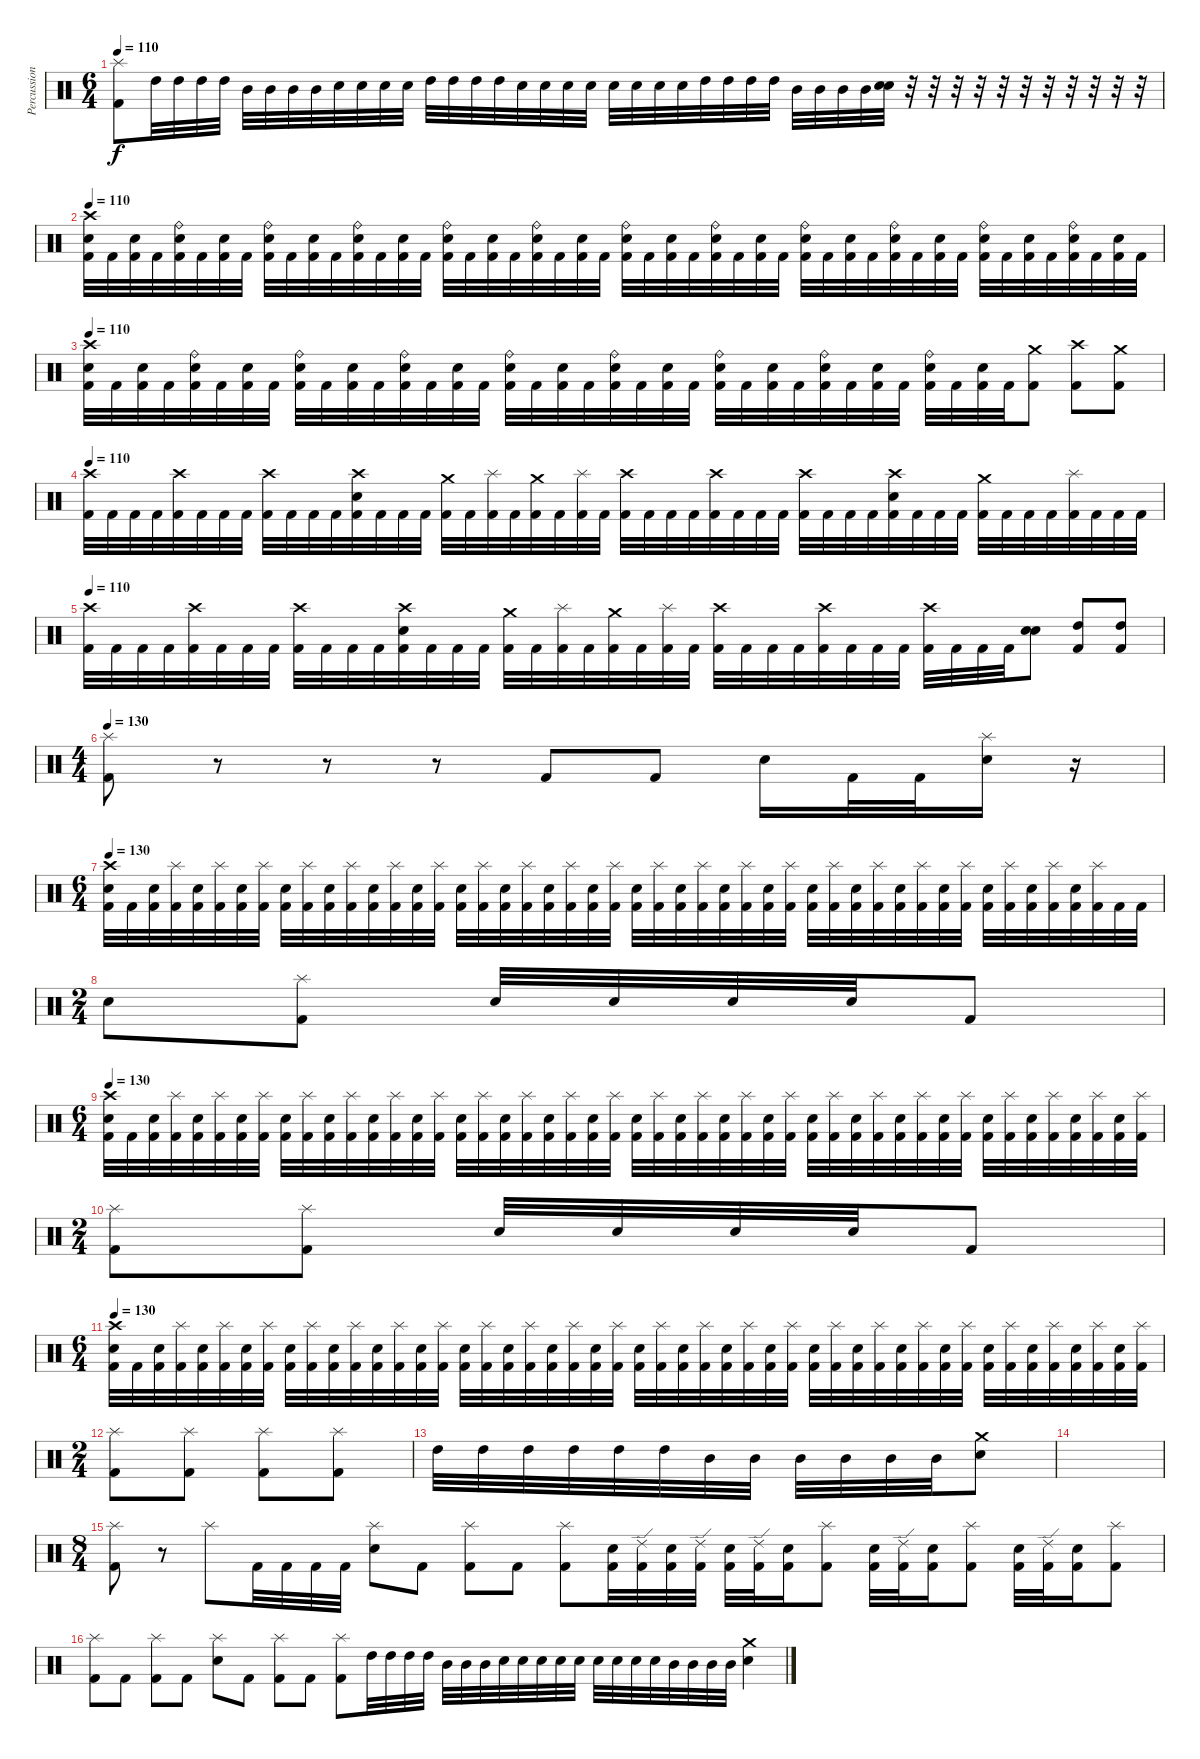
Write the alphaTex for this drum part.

\track ("Percussion" "Percussion") {instrument percussion}
\staff {score}
\articulation defaults
\ts (6 4)
\tempo 110
\clef neutral
\ks c
("Kick (hit) 2" "Splash (hit)").8{dy f} "High Tom (hit)".32 "High Tom (hit)".32 "High Tom (hit)".32 "High Tom (hit)".32 "Mid Tom (hit)".32 "Mid Tom (hit)".32 "Mid Tom (hit)".32 "Mid Tom (hit)".32 "Electric Snare (hit)".32 "Electric Snare (hit)".32 "Electric Snare (hit)".32 "Electric Snare (hit)".32 "High Tom (hit)".32 "High Tom (hit)".32 "High Tom (hit)".32 "High Tom (hit)".32 "Electric Snare (hit)".32 "Electric Snare (hit)".32 "Electric Snare (hit)".32 "Electric Snare (hit)".32 "Electric Snare (hit)".32 "Electric Snare (hit)".32 "Electric Snare (hit)".32 "Electric Snare (hit)".32 "High Tom (hit)".32 "High Tom (hit)".32 "High Tom (hit)".32 "High Tom (hit)".32 "Mid Tom (hit)".32 "Mid Tom (hit)".32 "Mid Tom (hit)".32 "Mid Tom (hit)".32 ("Electric Snare (hit)" "Electric Snare (hit)").32 r.32 r.32 r.32 r.32 r.32 r.32 r.32 r.32 r.32 r.32 r.32 |
\tempo 110
("Kick (hit) 2" "Electric Snare (hit)" "Crash high (hit)").32 "Kick (hit) 2".32 ("Kick (hit) 2" "Electric Snare (hit)").32 "Kick (hit) 2".32 ("Kick (hit) 2" "Electric Snare (hit)" "Ride (bell)").32 "Kick (hit) 2".32 ("Kick (hit) 2" "Electric Snare (hit)").32 "Kick (hit) 2".32 ("Kick (hit) 2" "Electric Snare (hit)" "Ride (bell)").32 "Kick (hit) 2".32 ("Kick (hit) 2" "Electric Snare (hit)").32 "Kick (hit) 2".32 ("Kick (hit) 2" "Electric Snare (hit)" "Ride (bell)").32 "Kick (hit) 2".32 ("Kick (hit) 2" "Electric Snare (hit)").32 "Kick (hit) 2".32 ("Kick (hit) 2" "Electric Snare (hit)" "Ride (bell)").32 "Kick (hit) 2".32 ("Kick (hit) 2" "Electric Snare (hit)").32 "Kick (hit) 2".32 ("Kick (hit) 2" "Electric Snare (hit)" "Ride (bell)").32 "Kick (hit) 2".32 ("Kick (hit) 2" "Electric Snare (hit)").32 "Kick (hit) 2".32 ("Kick (hit) 2" "Electric Snare (hit)" "Ride (bell)").32 "Kick (hit) 2".32 ("Kick (hit) 2" "Electric Snare (hit)").32 "Kick (hit) 2".32 ("Kick (hit) 2" "Electric Snare (hit)" "Ride (bell)").32 "Kick (hit) 2".32 ("Kick (hit) 2" "Electric Snare (hit)").32 "Kick (hit) 2".32 ("Kick (hit) 2" "Electric Snare (hit)" "Ride (bell)").32 "Kick (hit) 2".32 ("Kick (hit) 2" "Electric Snare (hit)").32 "Kick (hit) 2".32 ("Kick (hit) 2" "Electric Snare (hit)" "Ride (bell)").32 "Kick (hit) 2".32 ("Kick (hit) 2" "Electric Snare (hit)").32 "Kick (hit) 2".32 ("Kick (hit) 2" "Electric Snare (hit)" "Ride (bell)").32 "Kick (hit) 2".32 ("Kick (hit) 2" "Electric Snare (hit)").32 "Kick (hit) 2".32 ("Kick (hit) 2" "Electric Snare (hit)" "Ride (bell)").32 "Kick (hit) 2".32 ("Kick (hit) 2" "Electric Snare (hit)").32 "Kick (hit) 2".32 |
\tempo 110
("Kick (hit) 2" "Electric Snare (hit)" "Crash high (hit)").32 "Kick (hit) 2".32 ("Kick (hit) 2" "Electric Snare (hit)").32 "Kick (hit) 2".32 ("Kick (hit) 2" "Electric Snare (hit)" "Ride (bell)").32 "Kick (hit) 2".32 ("Kick (hit) 2" "Electric Snare (hit)").32 "Kick (hit) 2".32 ("Kick (hit) 2" "Electric Snare (hit)" "Ride (bell)").32 "Kick (hit) 2".32 ("Kick (hit) 2" "Electric Snare (hit)").32 "Kick (hit) 2".32 ("Kick (hit) 2" "Electric Snare (hit)" "Ride (bell)").32 "Kick (hit) 2".32 ("Kick (hit) 2" "Electric Snare (hit)").32 "Kick (hit) 2".32 ("Kick (hit) 2" "Electric Snare (hit)" "Ride (bell)").32 "Kick (hit) 2".32 ("Kick (hit) 2" "Electric Snare (hit)").32 "Kick (hit) 2".32 ("Kick (hit) 2" "Electric Snare (hit)" "Ride (bell)").32 "Kick (hit) 2".32 ("Kick (hit) 2" "Electric Snare (hit)").32 "Kick (hit) 2".32 ("Kick (hit) 2" "Electric Snare (hit)" "Ride (bell)").32 "Kick (hit) 2".32 ("Kick (hit) 2" "Electric Snare (hit)").32 "Kick (hit) 2".32 ("Kick (hit) 2" "Electric Snare (hit)" "Ride (bell)").32 "Kick (hit) 2".32 ("Kick (hit) 2" "Electric Snare (hit)").32 "Kick (hit) 2".32 ("Kick (hit) 2" "Electric Snare (hit)" "Ride (bell)").32 "Kick (hit) 2".32 ("Kick (hit) 2" "Electric Snare (hit)").32 "Kick (hit) 2".32 ("Kick (hit) 2" "Crash medium (hit)").8 ("Kick (hit) 2" "Crash high (hit)").8 ("Kick (hit) 2" "Crash medium (hit)").8 |
\tempo 110
("Kick (hit) 2" "Crash high (hit)").32 "Kick (hit) 2".32 "Kick (hit) 2".32 "Kick (hit) 2".32 ("Kick (hit) 2" "Crash high (hit)").32 "Kick (hit) 2".32 "Kick (hit) 2".32 "Kick (hit) 2".32 ("Kick (hit) 2" "Crash high (hit)").32 "Kick (hit) 2".32 "Kick (hit) 2".32 "Kick (hit) 2".32 ("Kick (hit) 2" "Electric Snare (hit)" "Crash high (hit)").32 "Kick (hit) 2".32 "Kick (hit) 2".32 "Kick (hit) 2".32 ("Kick (hit) 2" "Crash medium (hit)").32 "Kick (hit) 2".32 ("Kick (hit) 2" "Splash (hit)").32 "Kick (hit) 2".32 ("Kick (hit) 2" "Crash medium (hit)").32 "Kick (hit) 2".32 ("Kick (hit) 2" "Splash (hit)").32 "Kick (hit) 2".32 ("Kick (hit) 2" "Crash high (hit)").32 "Kick (hit) 2".32 "Kick (hit) 2".32 "Kick (hit) 2".32 ("Kick (hit) 2" "Crash high (hit)").32 "Kick (hit) 2".32 "Kick (hit) 2".32 "Kick (hit) 2".32 ("Kick (hit) 2" "Crash high (hit)").32 "Kick (hit) 2".32 "Kick (hit) 2".32 "Kick (hit) 2".32 ("Kick (hit) 2" "Electric Snare (hit)" "Crash high (hit)").32 "Kick (hit) 2".32 "Kick (hit) 2".32 "Kick (hit) 2".32 ("Kick (hit) 2" "Crash medium (hit)").32 "Kick (hit) 2".32 "Kick (hit) 2".32 "Kick (hit) 2".32 ("Kick (hit) 2" "Splash (hit)").32 "Kick (hit) 2".32 "Kick (hit) 2".32 "Kick (hit) 2".32 |
\tempo 110
("Kick (hit) 2" "Crash high (hit)").32 "Kick (hit) 2".32 "Kick (hit) 2".32 "Kick (hit) 2".32 ("Kick (hit) 2" "Crash high (hit)").32 "Kick (hit) 2".32 "Kick (hit) 2".32 "Kick (hit) 2".32 ("Kick (hit) 2" "Crash high (hit)").32 "Kick (hit) 2".32 "Kick (hit) 2".32 "Kick (hit) 2".32 ("Kick (hit) 2" "Electric Snare (hit)" "Crash high (hit)").32 "Kick (hit) 2".32 "Kick (hit) 2".32 "Kick (hit) 2".32 ("Kick (hit) 2" "Crash medium (hit)").32 "Kick (hit) 2".32 ("Kick (hit) 2" "Splash (hit)").32 "Kick (hit) 2".32 ("Kick (hit) 2" "Crash medium (hit)").32 "Kick (hit) 2".32 ("Kick (hit) 2" "Splash (hit)").32 "Kick (hit) 2".32 ("Kick (hit) 2" "Crash high (hit)").32 "Kick (hit) 2".32 "Kick (hit) 2".32 "Kick (hit) 2".32 ("Kick (hit) 2" "Crash high (hit)").32 "Kick (hit) 2".32 "Kick (hit) 2".32 "Kick (hit) 2".32 ("Kick (hit) 2" "Crash high (hit)").32 "Kick (hit) 2".32 "Kick (hit) 2".32 "Kick (hit) 2".32 ("Electric Snare (hit)" "Electric Snare (hit)").8 ("Kick (hit) 2" "High Tom (hit)").8 ("Kick (hit) 2" "High Tom (hit)").8 |
\ts (4 4)
\tempo 130
("Kick (hit) 2" "Splash (hit)").8 r.8 r.8 r.8 "Kick (hit) 2".8 "Kick (hit) 2".8 "Electric Snare (hit)".16 "Kick (hit) 2".32 "Kick (hit) 2".32 ("Electric Snare (hit)" "Splash (hit)").16 r.16 |
\ts (6 4)
\tempo 130
("Kick (hit) 2" "Electric Snare (hit)" "Crash high (hit)").32 "Kick (hit) 2".32 ("Kick (hit) 2" "Electric Snare (hit)").32 ("Kick (hit) 2" "Splash (hit)").32 ("Kick (hit) 2" "Electric Snare (hit)").32 ("Kick (hit) 2" "Splash (hit)").32 ("Kick (hit) 2" "Electric Snare (hit)").32 ("Kick (hit) 2" "Splash (hit)").32 ("Kick (hit) 2" "Electric Snare (hit)").32 ("Kick (hit) 2" "Splash (hit)").32 ("Kick (hit) 2" "Electric Snare (hit)").32 ("Kick (hit) 2" "Splash (hit)").32 ("Kick (hit) 2" "Electric Snare (hit)").32 ("Kick (hit) 2" "Splash (hit)").32 ("Kick (hit) 2" "Electric Snare (hit)").32 ("Kick (hit) 2" "Splash (hit)").32 ("Kick (hit) 2" "Electric Snare (hit)").32 ("Kick (hit) 2" "Splash (hit)").32 ("Kick (hit) 2" "Electric Snare (hit)").32 ("Kick (hit) 2" "Splash (hit)").32 ("Kick (hit) 2" "Electric Snare (hit)").32 ("Kick (hit) 2" "Splash (hit)").32 ("Kick (hit) 2" "Electric Snare (hit)").32 ("Kick (hit) 2" "Splash (hit)").32 ("Kick (hit) 2" "Electric Snare (hit)").32 ("Kick (hit) 2" "Splash (hit)").32 ("Kick (hit) 2" "Electric Snare (hit)").32 ("Kick (hit) 2" "Splash (hit)").32 ("Kick (hit) 2" "Electric Snare (hit)").32 ("Kick (hit) 2" "Splash (hit)").32 ("Kick (hit) 2" "Electric Snare (hit)").32 ("Kick (hit) 2" "Splash (hit)").32 ("Kick (hit) 2" "Electric Snare (hit)").32 ("Kick (hit) 2" "Splash (hit)").32 ("Kick (hit) 2" "Electric Snare (hit)").32 ("Kick (hit) 2" "Splash (hit)").32 ("Kick (hit) 2" "Electric Snare (hit)").32 ("Kick (hit) 2" "Splash (hit)").32 ("Kick (hit) 2" "Electric Snare (hit)").32 ("Kick (hit) 2" "Splash (hit)").32 ("Kick (hit) 2" "Electric Snare (hit)").32 ("Kick (hit) 2" "Splash (hit)").32 ("Kick (hit) 2" "Electric Snare (hit)").32 ("Kick (hit) 2" "Splash (hit)").32 ("Kick (hit) 2" "Electric Snare (hit)").32 ("Kick (hit) 2" "Splash (hit)").32 "Kick (hit) 2".32 "Kick (hit) 2".32 |
\ts (2 4)
"Electric Snare (hit)".8 ("Kick (hit) 2" "Splash (hit)").8 "Electric Snare (hit)".32 "Electric Snare (hit)".32 "Electric Snare (hit)".32 "Electric Snare (hit)".32 "Kick (hit) 2".8 |
\ts (6 4)
\tempo 130
("Kick (hit) 2" "Electric Snare (hit)" "Crash high (hit)").32 "Kick (hit) 2".32 ("Kick (hit) 2" "Electric Snare (hit)").32 ("Kick (hit) 2" "Splash (hit)").32 ("Kick (hit) 2" "Electric Snare (hit)").32 ("Kick (hit) 2" "Splash (hit)").32 ("Kick (hit) 2" "Electric Snare (hit)").32 ("Kick (hit) 2" "Splash (hit)").32 ("Kick (hit) 2" "Electric Snare (hit)").32 ("Kick (hit) 2" "Splash (hit)").32 ("Kick (hit) 2" "Electric Snare (hit)").32 ("Kick (hit) 2" "Splash (hit)").32 ("Kick (hit) 2" "Electric Snare (hit)").32 ("Kick (hit) 2" "Splash (hit)").32 ("Kick (hit) 2" "Electric Snare (hit)").32 ("Kick (hit) 2" "Splash (hit)").32 ("Kick (hit) 2" "Electric Snare (hit)").32 ("Kick (hit) 2" "Splash (hit)").32 ("Kick (hit) 2" "Electric Snare (hit)").32 ("Kick (hit) 2" "Splash (hit)").32 ("Kick (hit) 2" "Electric Snare (hit)").32 ("Kick (hit) 2" "Splash (hit)").32 ("Kick (hit) 2" "Electric Snare (hit)").32 ("Kick (hit) 2" "Splash (hit)").32 ("Kick (hit) 2" "Electric Snare (hit)").32 ("Kick (hit) 2" "Splash (hit)").32 ("Kick (hit) 2" "Electric Snare (hit)").32 ("Kick (hit) 2" "Splash (hit)").32 ("Kick (hit) 2" "Electric Snare (hit)").32 ("Kick (hit) 2" "Splash (hit)").32 ("Kick (hit) 2" "Electric Snare (hit)").32 ("Kick (hit) 2" "Splash (hit)").32 ("Kick (hit) 2" "Electric Snare (hit)").32 ("Kick (hit) 2" "Splash (hit)").32 ("Kick (hit) 2" "Electric Snare (hit)").32 ("Kick (hit) 2" "Splash (hit)").32 ("Kick (hit) 2" "Electric Snare (hit)").32 ("Kick (hit) 2" "Splash (hit)").32 ("Kick (hit) 2" "Electric Snare (hit)").32 ("Kick (hit) 2" "Splash (hit)").32 ("Kick (hit) 2" "Electric Snare (hit)").32 ("Kick (hit) 2" "Splash (hit)").32 ("Kick (hit) 2" "Electric Snare (hit)").32 ("Kick (hit) 2" "Splash (hit)").32 ("Kick (hit) 2" "Electric Snare (hit)").32 ("Kick (hit) 2" "Splash (hit)").32 ("Kick (hit) 2" "Electric Snare (hit)").32 ("Kick (hit) 2" "Splash (hit)").32 |
\ts (2 4)
("Kick (hit) 2" "Splash (hit)").8 ("Kick (hit) 2" "Splash (hit)").8 "Electric Snare (hit)".32 "Electric Snare (hit)".32 "Electric Snare (hit)".32 "Electric Snare (hit)".32 "Kick (hit) 2".8 |
\ts (6 4)
\tempo 130
("Kick (hit) 2" "Electric Snare (hit)" "Crash high (hit)").32 "Kick (hit) 2".32 ("Kick (hit) 2" "Electric Snare (hit)").32 ("Kick (hit) 2" "Splash (hit)").32 ("Kick (hit) 2" "Electric Snare (hit)").32 ("Kick (hit) 2" "Splash (hit)").32 ("Kick (hit) 2" "Electric Snare (hit)").32 ("Kick (hit) 2" "Splash (hit)").32 ("Kick (hit) 2" "Electric Snare (hit)").32 ("Kick (hit) 2" "Splash (hit)").32 ("Kick (hit) 2" "Electric Snare (hit)").32 ("Kick (hit) 2" "Splash (hit)").32 ("Kick (hit) 2" "Electric Snare (hit)").32 ("Kick (hit) 2" "Splash (hit)").32 ("Kick (hit) 2" "Electric Snare (hit)").32 ("Kick (hit) 2" "Splash (hit)").32 ("Kick (hit) 2" "Electric Snare (hit)").32 ("Kick (hit) 2" "Splash (hit)").32 ("Kick (hit) 2" "Electric Snare (hit)").32 ("Kick (hit) 2" "Splash (hit)").32 ("Kick (hit) 2" "Electric Snare (hit)").32 ("Kick (hit) 2" "Splash (hit)").32 ("Kick (hit) 2" "Electric Snare (hit)").32 ("Kick (hit) 2" "Splash (hit)").32 ("Kick (hit) 2" "Electric Snare (hit)").32 ("Kick (hit) 2" "Splash (hit)").32 ("Kick (hit) 2" "Electric Snare (hit)").32 ("Kick (hit) 2" "Splash (hit)").32 ("Kick (hit) 2" "Electric Snare (hit)").32 ("Kick (hit) 2" "Splash (hit)").32 ("Kick (hit) 2" "Electric Snare (hit)").32 ("Kick (hit) 2" "Splash (hit)").32 ("Kick (hit) 2" "Electric Snare (hit)").32 ("Kick (hit) 2" "Splash (hit)").32 ("Kick (hit) 2" "Electric Snare (hit)").32 ("Kick (hit) 2" "Splash (hit)").32 ("Kick (hit) 2" "Electric Snare (hit)").32 ("Kick (hit) 2" "Splash (hit)").32 ("Kick (hit) 2" "Electric Snare (hit)").32 ("Kick (hit) 2" "Splash (hit)").32 ("Kick (hit) 2" "Electric Snare (hit)").32 ("Kick (hit) 2" "Splash (hit)").32 ("Kick (hit) 2" "Electric Snare (hit)").32 ("Kick (hit) 2" "Splash (hit)").32 ("Kick (hit) 2" "Electric Snare (hit)").32 ("Kick (hit) 2" "Splash (hit)").32 ("Kick (hit) 2" "Electric Snare (hit)").32 ("Kick (hit) 2" "Splash (hit)").32 |
\ts (2 4)
("Kick (hit) 2" "Splash (hit)").8 ("Kick (hit) 2" "Splash (hit)").8 ("Kick (hit) 2" "Splash (hit)").8 ("Kick (hit) 2" "Splash (hit)").8 |
"High Tom (hit)".32 "High Tom (hit)".32 "High Tom (hit)".32 "High Tom (hit)".32 "High Tom (hit)".32 "High Tom (hit)".32 "Mid Tom (hit)".32 "Mid Tom (hit)".32 "Mid Tom (hit)".32 "Mid Tom (hit)".32 "Mid Tom (hit)".32 "Mid Tom (hit)".32 ("Electric Snare (hit)" "Crash medium (hit)").8 |
|
\ts (8 4)
("Kick (hit) 2" "Splash (hit)").8 r.8 "Splash (hit)".8 "Kick (hit) 2".32 "Kick (hit) 2".32 "Kick (hit) 2".32 "Kick (hit) 2".32 ("Electric Snare (hit)" "Splash (hit)").8 "Kick (hit) 2".8 ("Kick (hit) 2" "Splash (hit)").8 "Kick (hit) 2".8 ("Kick (hit) 2" "Splash (hit)").8 ("Kick (hit) 2" "Electric Snare (hit)").32 ("Kick (hit) 2" "Ride (edge) 2").32 ("Kick (hit) 2" "Electric Snare (hit)").32 ("Kick (hit) 2" "Ride (edge) 2").32 ("Kick (hit) 2" "Electric Snare (hit)").32 ("Kick (hit) 2" "Ride (edge) 2").32 ("Kick (hit) 2" "Electric Snare (hit)").16 ("Kick (hit) 2" "Splash (hit)").8 ("Kick (hit) 2" "Electric Snare (hit)").32 ("Kick (hit) 2" "Ride (edge) 2").32 ("Kick (hit) 2" "Electric Snare (hit)").16 ("Kick (hit) 2" "Splash (hit)").8 ("Kick (hit) 2" "Electric Snare (hit)").32 ("Kick (hit) 2" "Ride (edge) 2").32 ("Kick (hit) 2" "Electric Snare (hit)").16 ("Kick (hit) 2" "Splash (hit)").8 |
("Kick (hit) 2" "Splash (hit)").8 "Kick (hit) 2".8 ("Kick (hit) 2" "Splash (hit)").8 "Kick (hit) 2".8 ("Electric Snare (hit)" "Splash (hit)").8 "Kick (hit) 2".8 ("Kick (hit) 2" "Splash (hit)").8 "Kick (hit) 2".8 ("Kick (hit) 2" "Splash (hit)").8 "High Tom (hit)".32 "High Tom (hit)".32 "High Tom (hit)".32 "High Tom (hit)".32 "Mid Tom (hit)".32 "Mid Tom (hit)".32 "Mid Tom (hit)".32 "Electric Snare (hit)".32 "Electric Snare (hit)".32 "Electric Snare (hit)".32 "Electric Snare (hit)".32 "Electric Snare (hit)".32 "Electric Snare (hit)".32 "Electric Snare (hit)".32 "Electric Snare (hit)".32 "Electric Snare (hit)".32 "Mid Tom (hit)".32 "Mid Tom (hit)".32 "Mid Tom (hit)".32 "Mid Tom (hit)".32 ("Electric Snare (hit)" "Crash medium (hit)").4
